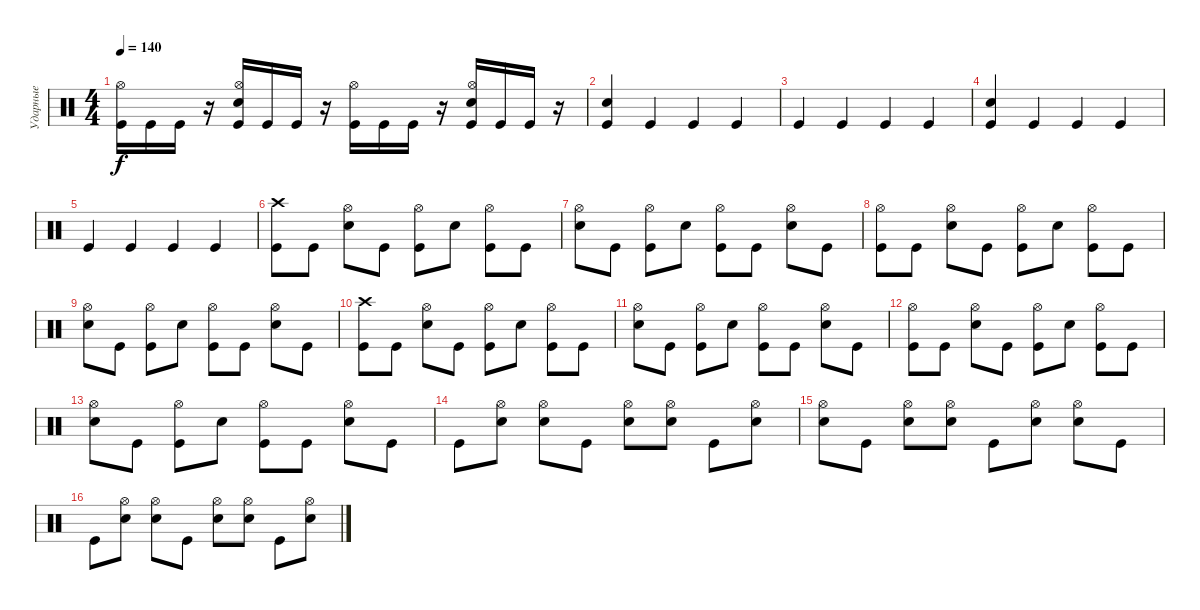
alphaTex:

\track ("Ударные" "Ударные") {instrument percussion}
\staff {score}
\articulation defaults
\ts (4 4)
\tempo 140
\clef neutral
\ks c
("Kick (hit)" "Hi-Hat (open)").16{dy f} "Kick (hit)".16 "Kick (hit)".16 r.16 ("Kick (hit)" "Snare (hit) 2" "Hi-Hat (open)").16 "Kick (hit)".16 "Kick (hit)".16 r.16 ("Kick (hit)" "Hi-Hat (open)").16 "Kick (hit)".16 "Kick (hit)".16 r.16 ("Kick (hit)" "Snare (hit) 2" "Hi-Hat (open)").16 "Kick (hit)".16 "Kick (hit)".16 r.16 |
("Kick (hit)" "Snare (hit) 2").4 "Kick (hit)".4 "Kick (hit)".4 "Kick (hit)".4 |
"Kick (hit)".4 "Kick (hit)".4 "Kick (hit)".4 "Kick (hit)".4 |
("Kick (hit)" "Snare (hit) 2").4 "Kick (hit)".4 "Kick (hit)".4 "Kick (hit)".4 |
"Kick (hit)".4 "Kick (hit)".4 "Kick (hit)".4 "Kick (hit)".4 |
("Kick (hit)" "Crash high (hit)").8 "Kick (hit)".8 ("Snare (hit) 2" "Hi-Hat (open)").8 "Kick (hit)".8 ("Kick (hit)" "Hi-Hat (open)").8 "Snare (hit) 2".8 ("Kick (hit)" "Hi-Hat (open)").8 "Kick (hit)".8 |
("Snare (hit) 2" "Hi-Hat (open)").8 "Kick (hit)".8 ("Kick (hit)" "Hi-Hat (open)").8 "Snare (hit) 2".8 ("Kick (hit)" "Hi-Hat (open)").8 "Kick (hit)".8 ("Snare (hit) 2" "Hi-Hat (open)").8 "Kick (hit)".8 |
("Kick (hit)" "Hi-Hat (open)").8 "Kick (hit)".8 ("Snare (hit) 2" "Hi-Hat (open)").8 "Kick (hit)".8 ("Kick (hit)" "Hi-Hat (open)").8 "Snare (hit) 2".8 ("Kick (hit)" "Hi-Hat (open)").8 "Kick (hit)".8 |
("Snare (hit) 2" "Hi-Hat (open)").8 "Kick (hit)".8 ("Kick (hit)" "Hi-Hat (open)").8 "Snare (hit) 2".8 ("Kick (hit)" "Hi-Hat (open)").8 "Kick (hit)".8 ("Snare (hit) 2" "Hi-Hat (open)").8 "Kick (hit)".8 |
("Kick (hit)" "Crash high (hit)").8 "Kick (hit)".8 ("Snare (hit) 2" "Hi-Hat (open)").8 "Kick (hit)".8 ("Kick (hit)" "Hi-Hat (open)").8 "Snare (hit) 2".8 ("Kick (hit)" "Hi-Hat (open)").8 "Kick (hit)".8 |
("Snare (hit) 2" "Hi-Hat (open)").8 "Kick (hit)".8 ("Kick (hit)" "Hi-Hat (open)").8 "Snare (hit) 2".8 ("Kick (hit)" "Hi-Hat (open)").8 "Kick (hit)".8 ("Snare (hit) 2" "Hi-Hat (open)").8 "Kick (hit)".8 |
("Kick (hit)" "Hi-Hat (open)").8 "Kick (hit)".8 ("Snare (hit) 2" "Hi-Hat (open)").8 "Kick (hit)".8 ("Kick (hit)" "Hi-Hat (open)").8 "Snare (hit) 2".8 ("Kick (hit)" "Hi-Hat (open)").8 "Kick (hit)".8 |
("Snare (hit) 2" "Hi-Hat (open)").8 "Kick (hit)".8 ("Kick (hit)" "Hi-Hat (open)").8 "Snare (hit) 2".8 ("Kick (hit)" "Hi-Hat (open)").8 "Kick (hit)".8 ("Snare (hit) 2" "Hi-Hat (open)").8 "Kick (hit)".8 |
"Kick (hit)".8 ("Snare (hit) 2" "Hi-Hat (open)").8 ("Snare (hit) 2" "Hi-Hat (open)").8 "Kick (hit)".8 ("Snare (hit) 2" "Hi-Hat (open)").8 ("Snare (hit) 2" "Hi-Hat (open)").8 "Kick (hit)".8 ("Snare (hit) 2" "Hi-Hat (open)").8 |
("Snare (hit) 2" "Hi-Hat (open)").8 "Kick (hit)".8 ("Snare (hit) 2" "Hi-Hat (open)").8 ("Snare (hit) 2" "Hi-Hat (open)").8 "Kick (hit)".8 ("Snare (hit) 2" "Hi-Hat (open)").8 ("Snare (hit) 2" "Hi-Hat (open)").8 "Kick (hit)".8 |
"Kick (hit)".8 ("Snare (hit) 2" "Hi-Hat (open)").8 ("Snare (hit) 2" "Hi-Hat (open)").8 "Kick (hit)".8 ("Snare (hit) 2" "Hi-Hat (open)").8 ("Snare (hit) 2" "Hi-Hat (open)").8 "Kick (hit)".8 ("Snare (hit) 2" "Hi-Hat (open)").8
